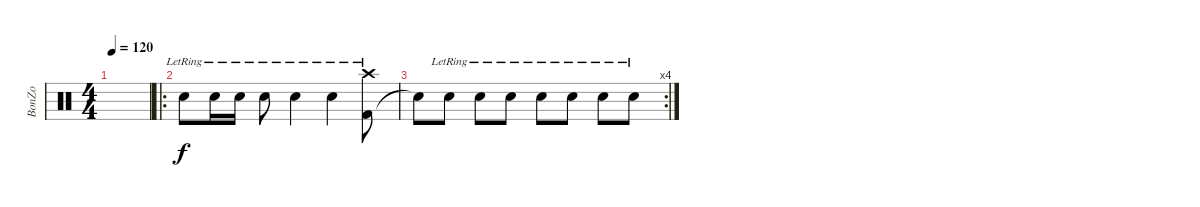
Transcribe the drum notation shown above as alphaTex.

\track ("BonZo" "BonZo") {instrument percussion}
\staff {score}
\articulation defaults
\ts (4 4)
\tempo 120
\clef neutral
\ks c
|
\ro "Electric Snare (hit)"{lr}.8 "Electric Snare (hit)"{lr}.16 "Electric Snare (hit)"{lr}.16 "Electric Snare (hit)"{lr}.8 "Electric Snare (hit)"{lr}.4 "Electric Snare (hit)"{lr}.4
("Kick (hit) 2"{lr} "Crash high (hit)"{lr}).8 |
\rc 4 "Electric Snare (hit)"{t}.8 "Electric Snare (hit)"{lr}.8 "Electric Snare (hit)"{lr}.8 "Electric Snare (hit)"{lr}.8 "Electric Snare (hit)"{lr}.8 "Electric Snare (hit)"{lr}.8 "Electric Snare (hit)"{lr}.8 "Electric Snare (hit)"{lr}.8
